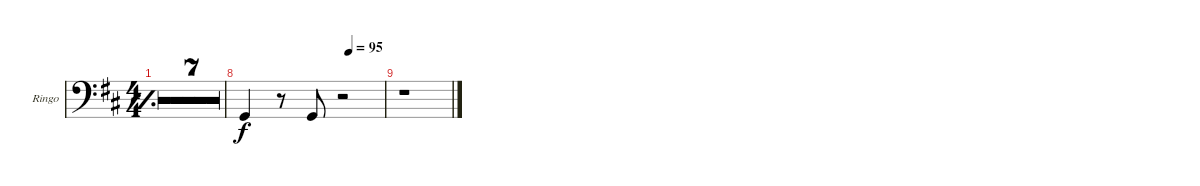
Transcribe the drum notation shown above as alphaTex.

\defaultSystemsLayout 4
\bracketExtendMode groupsimilarinstruments
\firstSystemTrackNameOrientation horizontal
\otherSystemsTrackNameOrientation horizontal
\track ("Ringo Starr - Legs" "Ringo") {multiBarRest instrument percussion}
\staff {score}
\articulation defaults
\ts (4 4)
\tempo 111
\clef f4
\simile simple
\ks d
|
|
|
|
|
|
|
\tempo (95 0.75)
\simile none "Kick (hit)".4
r.8 "Kick (hit)".8 r.2 |
r.1
